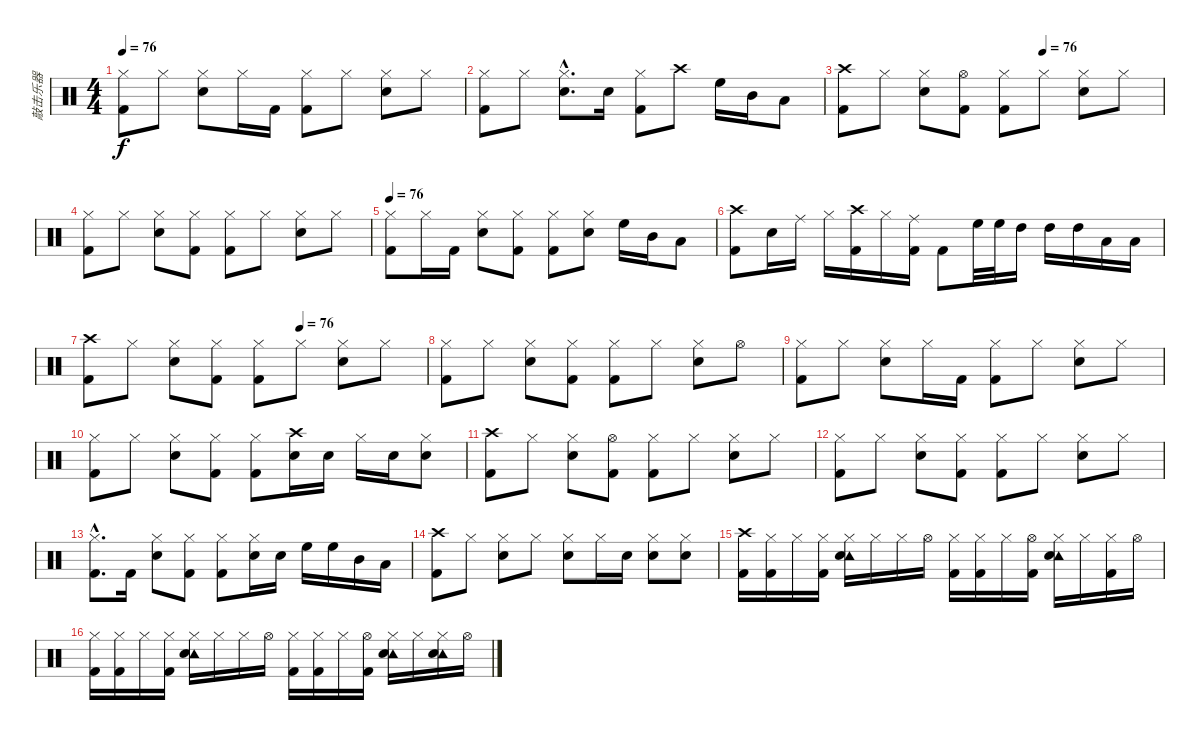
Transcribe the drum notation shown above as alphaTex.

\track ("敲击乐器" "敲击乐器") {instrument percussion}
\staff {score}
\articulation defaults
\ts (4 4)
\tempo 76
\clef neutral
\ks c
("Hi-Hat (closed)" "Kick (hit) 2").8{dy f} "Hi-Hat (closed)".8 ("Hi-Hat (closed)" "Snare (hit) 2").8 "Hi-Hat (closed)".16 "Kick (hit) 2".16 ("Hi-Hat (closed)" "Kick (hit) 2").8 "Hi-Hat (closed)".8 ("Hi-Hat (closed)" "Snare (hit) 2").8 "Hi-Hat (closed)".8 |
("Hi-Hat (closed)" "Kick (hit) 2").8 "Hi-Hat (closed)".8 ("Hi-Hat (closed)"{hac} "Snare (hit) 2"{hac}).8{d} "Snare (hit) 2".16 ("Hi-Hat (closed)" "Kick (hit) 2").8 "Crash high (hit)".8 "High Floor Tom (hit)".16 "Mid Tom (hit)".16 "Low Tom (hit)".8 |
\tempo (76 0.625)
("Crash high (hit)" "Kick (hit) 2").8 "Hi-Hat (closed)".8 ("Hi-Hat (closed)" "Snare (hit) 2").8 ("Hi-Hat (open)" "Kick (hit) 2").8 ("Hi-Hat (closed)" "Kick (hit) 2").8 "Hi-Hat (closed)".8 ("Hi-Hat (closed)" "Snare (hit) 2").8 "Hi-Hat (closed)".8 |
("Hi-Hat (closed)" "Kick (hit) 2").8 "Hi-Hat (closed)".8 ("Hi-Hat (closed)" "Snare (hit) 2").8 ("Hi-Hat (closed)" "Kick (hit) 2").8 ("Hi-Hat (closed)" "Kick (hit) 2").8 "Hi-Hat (closed)".8 ("Hi-Hat (closed)" "Snare (hit) 2").8 "Hi-Hat (closed)".8 |
\tempo 76
("Hi-Hat (closed)" "Kick (hit) 2").8 "Hi-Hat (closed)".16 "Kick (hit) 2".16 ("Hi-Hat (closed)" "Snare (hit) 2").8 ("Hi-Hat (closed)" "Kick (hit) 2").8 ("Hi-Hat (closed)" "Kick (hit) 2").8 ("Hi-Hat (closed)" "Snare (hit) 2").8 "High Floor Tom (hit)".16 "Mid Tom (hit)".16 "Low Tom (hit)".8 |
("Crash high (hit)" "Kick (hit) 2").8 "Snare (hit) 2".16 "Ride (middle)".16 "Hi-Hat (closed)".16 ("Crash high (hit)" "Kick (hit) 2").16 "Hi-Hat (closed)".16 ("Ride (middle)" "Kick (hit) 2").16 "Kick (hit) 2".8 "High Floor Tom (hit)".32 "High Floor Tom (hit)".32 "High Tom (hit)".16 "High Tom (hit)".16 "High Tom (hit)".16 "Low Tom (hit)".16 "Low Tom (hit)".16 |
\tempo (76 0.625)
("Crash high (hit)" "Kick (hit) 2").8 "Hi-Hat (closed)".8 ("Hi-Hat (closed)" "Snare (hit) 2").8 ("Hi-Hat (closed)" "Kick (hit) 2").8 ("Hi-Hat (closed)" "Kick (hit) 2").8 "Hi-Hat (closed)".8 ("Hi-Hat (closed)" "Snare (hit) 2").8 "Hi-Hat (closed)".8 |
("Hi-Hat (closed)" "Kick (hit) 2").8 "Hi-Hat (closed)".8 ("Hi-Hat (closed)" "Snare (hit) 2").8 ("Hi-Hat (closed)" "Kick (hit) 2").8 ("Hi-Hat (closed)" "Kick (hit) 2").8 "Hi-Hat (closed)".8 ("Hi-Hat (closed)" "Snare (hit) 2").8 "Hi-Hat (open)".8 |
("Hi-Hat (closed)" "Kick (hit) 2").8 "Hi-Hat (closed)".8 ("Hi-Hat (closed)" "Snare (hit) 2").8 "Hi-Hat (closed)".16 "Kick (hit) 2".16 ("Hi-Hat (closed)" "Kick (hit) 2").8 "Hi-Hat (closed)".8 ("Hi-Hat (closed)" "Snare (hit) 2").8 "Hi-Hat (closed)".8 |
("Hi-Hat (closed)" "Kick (hit) 2").8 "Hi-Hat (closed)".8 ("Hi-Hat (closed)" "Snare (hit) 2").8 ("Hi-Hat (closed)" "Kick (hit) 2").8 ("Hi-Hat (closed)" "Kick (hit) 2").8 ("Crash high (hit)" "Snare (hit) 2").16 "Snare (hit) 2".16 "Hi-Hat (closed)".16 "Snare (hit) 2".16 ("Hi-Hat (closed)" "Snare (hit) 2").8 |
("Crash high (hit)" "Kick (hit) 2").8 "Hi-Hat (closed)".8 ("Hi-Hat (closed)" "Snare (hit) 2").8 ("Hi-Hat (open)" "Kick (hit) 2").8 ("Hi-Hat (closed)" "Kick (hit) 2").8 "Hi-Hat (closed)".8 ("Hi-Hat (closed)" "Snare (hit) 2").8 "Hi-Hat (closed)".8 |
("Hi-Hat (closed)" "Kick (hit) 2").8 "Hi-Hat (closed)".8 ("Hi-Hat (closed)" "Snare (hit) 2").8 ("Hi-Hat (closed)" "Kick (hit) 2").8 ("Hi-Hat (closed)" "Kick (hit) 2").8 "Hi-Hat (closed)".8 ("Hi-Hat (closed)" "Snare (hit) 2").8 "Hi-Hat (closed)".8 |
("Hi-Hat (closed)"{hac} "Kick (hit) 2"{hac}).8{d} "Kick (hit) 2".16 ("Hi-Hat (closed)" "Snare (hit) 2").8 ("Hi-Hat (closed)" "Kick (hit) 2").8 ("Hi-Hat (closed)" "Kick (hit) 2").8 ("Hi-Hat (closed)" "Snare (hit) 2").16 "Snare (hit) 2".16 "High Floor Tom (hit)".16 "High Floor Tom (hit)".16 "Mid Tom (hit)".16 "Low Tom (hit)".16 |
("Crash high (hit)" "Kick (hit) 2").8 "Hi-Hat (closed)".8 ("Hi-Hat (closed)" "Snare (hit) 2").8 "Hi-Hat (closed)".8 ("Hi-Hat (closed)" "Snare (hit) 2").8 "Hi-Hat (closed)".16 "Snare (hit) 2".16 ("Hi-Hat (closed)" "Snare (hit) 2").8 ("Hi-Hat (closed)" "Snare (hit) 2").8 |
("Crash high (hit)" "Kick (hit) 2").16 ("Hi-Hat (closed)" "Kick (hit) 2").16 "Hi-Hat (closed)".16 ("Hi-Hat (closed)" "Kick (hit) 2").16 ("Hi-Hat (closed)" "Tambourine (hit)" "Snare (hit) 2").16 "Hi-Hat (closed)".16 "Hi-Hat (closed)".16 "Hi-Hat (open)".16 ("Hi-Hat (closed)" "Kick (hit) 2").16 ("Hi-Hat (closed)" "Kick (hit) 2").16 "Hi-Hat (closed)".16 ("Hi-Hat (open)" "Kick (hit) 2").16 ("Hi-Hat (closed)" "Tambourine (hit)" "Snare (hit) 2").16 "Hi-Hat (closed)".16 ("Hi-Hat (closed)" "Kick (hit) 2").16 "Hi-Hat (open)".16 |
("Hi-Hat (closed)" "Kick (hit) 2").16 ("Hi-Hat (closed)" "Kick (hit) 2").16 "Hi-Hat (closed)".16 ("Hi-Hat (closed)" "Kick (hit) 2").16 ("Hi-Hat (closed)" "Tambourine (hit)" "Snare (hit) 2").16 "Hi-Hat (closed)".16 "Hi-Hat (closed)".16 "Hi-Hat (open)".16 ("Hi-Hat (closed)" "Kick (hit) 2").16 ("Hi-Hat (closed)" "Kick (hit) 2").16 "Hi-Hat (closed)".16 ("Hi-Hat (open)" "Kick (hit) 2").16 ("Hi-Hat (closed)" "Tambourine (hit)" "Snare (hit) 2").16 "Hi-Hat (closed)".16 ("Hi-Hat (closed)" "Tambourine (hit)" "Snare (hit) 2").16 "Hi-Hat (open)".16
